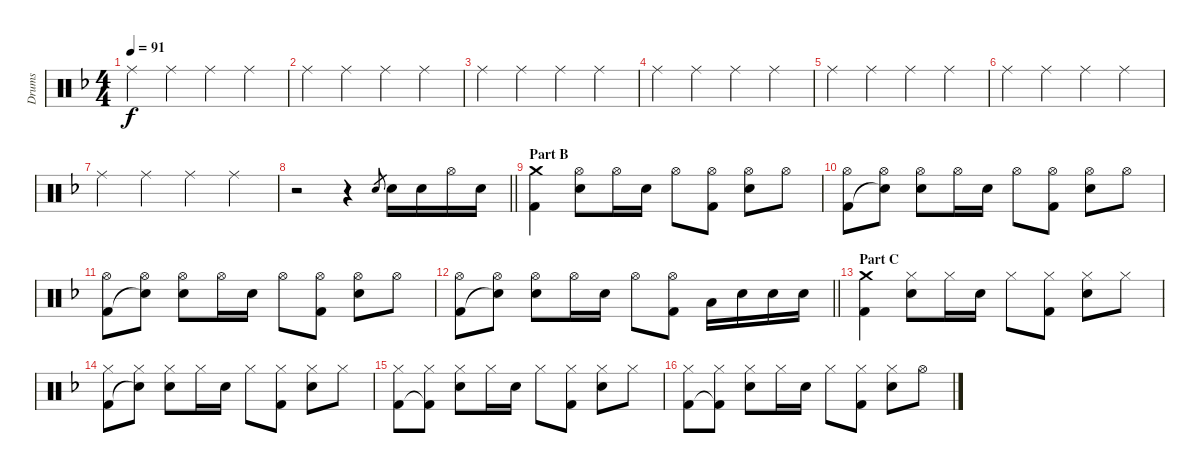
\track ("Drums" "Drums") {instrument percussion}
\staff {score}
\articulation defaults
\ts (4 4)
\tempo 91
\clef neutral
\ks f "Ride (middle)".4{dy f} "Ride (middle)".4 "Ride (middle)".4 "Ride (middle)".4
|
"Ride (middle)".4 "Ride (middle)".4 "Ride (middle)".4 "Ride (middle)".4 |
"Ride (middle)".4 "Ride (middle)".4 "Ride (middle)".4 "Ride (middle)".4 |
"Ride (middle)".4 "Ride (middle)".4 "Ride (middle)".4 "Ride (middle)".4 |
"Ride (middle)".4 "Ride (middle)".4 "Ride (middle)".4 "Ride (middle)".4 |
"Ride (middle)".4 "Ride (middle)".4 "Ride (middle)".4 "Ride (middle)".4 |
"Ride (middle)".4 "Ride (middle)".4 "Ride (middle)".4 "Ride (middle)".4 |
\barLineRight lightlight
r.2 r.4 "Electric Snare (hit)".8{gr} "Electric Snare (hit)".16 "Electric Snare (hit)".16 "Hi-Hat (open)".16 "Electric Snare (hit)".16 |
\section ("" "Part B")
("Crash medium (hit)" "Kick (hit) 2").4 ("Hi-Hat (open)" "Electric Snare (hit)").8 "Hi-Hat (open)".16 "Electric Snare (hit)".16 "Hi-Hat (open)".8 ("Hi-Hat (open)" "Kick (hit) 2").8 ("Hi-Hat (open)" "Electric Snare (hit)").8 "Hi-Hat (open)".8 |
("Hi-Hat (open)" "Kick (hit) 2").8 ("Hi-Hat (open)" "Snare (hit)"{t}).8 ("Hi-Hat (open)" "Electric Snare (hit)").8 "Hi-Hat (open)".16 "Electric Snare (hit)".16 "Hi-Hat (open)".8 ("Hi-Hat (open)" "Kick (hit) 2").8 ("Hi-Hat (open)" "Electric Snare (hit)").8 "Hi-Hat (open)".8 |
("Hi-Hat (open)" "Kick (hit) 2").8 ("Hi-Hat (open)" "Snare (hit)"{t}).8 ("Hi-Hat (open)" "Electric Snare (hit)").8 "Hi-Hat (open)".16 "Electric Snare (hit)".16 "Hi-Hat (open)".8 ("Hi-Hat (open)" "Kick (hit) 2").8 ("Hi-Hat (open)" "Electric Snare (hit)").8 "Hi-Hat (open)".8 |
\barLineRight lightlight
("Hi-Hat (open)" "Kick (hit) 2").8 ("Hi-Hat (open)" "Snare (hit)"{t}).8 ("Hi-Hat (open)" "Electric Snare (hit)").8 "Hi-Hat (open)".16 "Electric Snare (hit)".16 "Hi-Hat (open)".8 ("Hi-Hat (open)" "Kick (hit) 2").8 "Low Tom (hit)".16 "Electric Snare (hit)".16 "Electric Snare (hit)".16 "Electric Snare (hit)".16 |
\section ("" "Part C")
("Crash medium (hit)" "Kick (hit) 2").4 ("Hi-Hat (closed)" "Electric Snare (hit)").8 "Hi-Hat (closed)".16 "Electric Snare (hit)".16 "Hi-Hat (closed)".8 ("Hi-Hat (closed)" "Kick (hit) 2").8 ("Hi-Hat (closed)" "Electric Snare (hit)").8 "Hi-Hat (closed)".8 |
("Hi-Hat (closed)" "Kick (hit) 2").8 ("Hi-Hat (closed)" "Snare (hit)"{t}).8 ("Hi-Hat (closed)" "Electric Snare (hit)").8 "Hi-Hat (closed)".16 "Electric Snare (hit)".16 "Hi-Hat (closed)".8 ("Hi-Hat (closed)" "Kick (hit) 2").8 ("Hi-Hat (closed)" "Electric Snare (hit)").8 "Hi-Hat (closed)".8 |
("Hi-Hat (closed)" "Kick (hit) 2").8 ("Hi-Hat (closed)" "Kick (hit) 2"{t}).8 ("Hi-Hat (closed)" "Electric Snare (hit)").8 "Hi-Hat (closed)".16 "Electric Snare (hit)".16 "Hi-Hat (closed)".8 ("Hi-Hat (closed)" "Kick (hit) 2").8 ("Hi-Hat (closed)" "Electric Snare (hit)").8 "Hi-Hat (closed)".8 |
("Hi-Hat (closed)" "Kick (hit) 2").8 ("Hi-Hat (closed)" "Kick (hit) 2"{t}).8 ("Hi-Hat (closed)" "Electric Snare (hit)").8 "Hi-Hat (closed)".16 "Electric Snare (hit)".16 "Hi-Hat (closed)".8 ("Hi-Hat (closed)" "Kick (hit) 2").8 ("Hi-Hat (closed)" "Electric Snare (hit)").8 "Hi-Hat (open)".8
